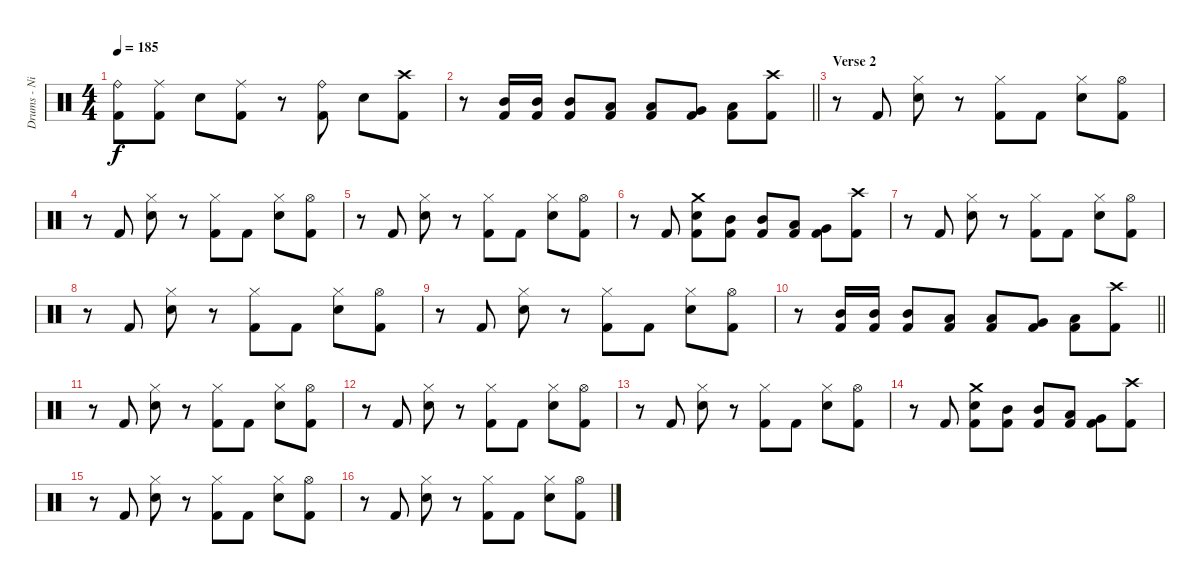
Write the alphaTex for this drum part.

\track ("Drums - Nicko" "Drums - Ni") {instrument percussion}
\staff {score}
\articulation defaults
\ts (4 4)
\tempo 185
\clef neutral
\ks c
("Ride (bell)" "Kick (hit) 2").8{dy f} ("Ride (middle)" "Kick (hit) 2").8 "Snare (hit) 2".8 ("Ride (middle)" "Kick (hit) 2").8 r.8 ("Ride (bell)" "Kick (hit) 2").8 "Snare (hit) 2".8 ("Crash high (hit)" "Kick (hit) 2").8 |
\barLineRight lightlight
r.8 ("Mid Tom (hit)" "Kick (hit) 2").16 ("Mid Tom (hit)" "Kick (hit) 2").16 ("Mid Tom (hit)" "Kick (hit) 2").8 ("Low Tom (hit)" "Kick (hit) 2").8 ("Low Tom (hit)" "Kick (hit) 2").8 ("Very Low Tom (hit)" "Kick (hit) 2").8 ("Low Floor Tom (hit)" "Kick (hit) 2").8 ("Crash high (hit)" "Kick (hit) 2").8 |
\section ("" "Verse 2")
r.8 "Kick (hit) 2".8 ("Hi-Hat (closed)" "Snare (hit) 2").8 r.8 ("Hi-Hat (closed)" "Kick (hit) 2").8 "Kick (hit) 2".8 ("Hi-Hat (closed)" "Snare (hit) 2").8 ("Hi-Hat (open)" "Kick (hit) 2").8 |
r.8 "Kick (hit) 2".8 ("Hi-Hat (closed)" "Snare (hit) 2").8 r.8 ("Hi-Hat (closed)" "Kick (hit) 2").8 "Kick (hit) 2".8 ("Hi-Hat (closed)" "Snare (hit) 2").8 ("Hi-Hat (open)" "Kick (hit) 2").8 |
r.8 "Kick (hit) 2".8 ("Hi-Hat (closed)" "Snare (hit) 2").8 r.8 ("Hi-Hat (closed)" "Kick (hit) 2").8 "Kick (hit) 2".8 ("Hi-Hat (closed)" "Snare (hit) 2").8 ("Hi-Hat (open)" "Kick (hit) 2").8 |
r.8 "Kick (hit) 2".8 ("Crash medium (hit)" "Snare (hit) 2" "Kick (hit) 2").8 ("Mid Tom (hit)" "Kick (hit) 2").8 ("Mid Tom (hit)" "Kick (hit) 2").8 ("Low Tom (hit)" "Kick (hit) 2").8 ("Very Low Tom (hit)" "Kick (hit) 2").8 ("Crash high (hit)" "Kick (hit) 2").8 |
r.8 "Kick (hit) 2".8 ("Hi-Hat (closed)" "Snare (hit) 2").8 r.8 ("Hi-Hat (closed)" "Kick (hit) 2").8 "Kick (hit) 2".8 ("Hi-Hat (closed)" "Snare (hit) 2").8 ("Hi-Hat (open)" "Kick (hit) 2").8 |
r.8 "Kick (hit) 2".8 ("Hi-Hat (closed)" "Snare (hit) 2").8 r.8 ("Hi-Hat (closed)" "Kick (hit) 2").8 "Kick (hit) 2".8 ("Hi-Hat (closed)" "Snare (hit) 2").8 ("Hi-Hat (open)" "Kick (hit) 2").8 |
r.8 "Kick (hit) 2".8 ("Hi-Hat (closed)" "Snare (hit) 2").8 r.8 ("Hi-Hat (closed)" "Kick (hit) 2").8 "Kick (hit) 2".8 ("Hi-Hat (closed)" "Snare (hit) 2").8 ("Hi-Hat (open)" "Kick (hit) 2").8 |
\barLineRight lightlight
r.8 ("Mid Tom (hit)" "Kick (hit) 2").16 ("Mid Tom (hit)" "Kick (hit) 2").16 ("Mid Tom (hit)" "Kick (hit) 2").8 ("Low Tom (hit)" "Kick (hit) 2").8 ("Low Tom (hit)" "Kick (hit) 2").8 ("Very Low Tom (hit)" "Kick (hit) 2").8 ("Low Floor Tom (hit)" "Kick (hit) 2").8 ("Crash high (hit)" "Kick (hit) 2").8 |
\section ("" "")
r.8 "Kick (hit) 2".8 ("Hi-Hat (closed)" "Snare (hit) 2").8 r.8 ("Hi-Hat (closed)" "Kick (hit) 2").8 "Kick (hit) 2".8 ("Hi-Hat (closed)" "Snare (hit) 2").8 ("Hi-Hat (open)" "Kick (hit) 2").8 |
r.8 "Kick (hit) 2".8 ("Hi-Hat (closed)" "Snare (hit) 2").8 r.8 ("Hi-Hat (closed)" "Kick (hit) 2").8 "Kick (hit) 2".8 ("Hi-Hat (closed)" "Snare (hit) 2").8 ("Hi-Hat (open)" "Kick (hit) 2").8 |
r.8 "Kick (hit) 2".8 ("Hi-Hat (closed)" "Snare (hit) 2").8 r.8 ("Hi-Hat (closed)" "Kick (hit) 2").8 "Kick (hit) 2".8 ("Hi-Hat (closed)" "Snare (hit) 2").8 ("Hi-Hat (open)" "Kick (hit) 2").8 |
r.8 "Kick (hit) 2".8 ("Crash medium (hit)" "Snare (hit) 2" "Kick (hit) 2").8 ("Mid Tom (hit)" "Kick (hit) 2").8 ("Mid Tom (hit)" "Kick (hit) 2").8 ("Low Tom (hit)" "Kick (hit) 2").8 ("Very Low Tom (hit)" "Kick (hit) 2").8 ("Crash high (hit)" "Kick (hit) 2").8 |
r.8 "Kick (hit) 2".8 ("Hi-Hat (closed)" "Snare (hit) 2").8 r.8 ("Hi-Hat (closed)" "Kick (hit) 2").8 "Kick (hit) 2".8 ("Hi-Hat (closed)" "Snare (hit) 2").8 ("Hi-Hat (open)" "Kick (hit) 2").8 |
r.8 "Kick (hit) 2".8 ("Hi-Hat (closed)" "Snare (hit) 2").8 r.8 ("Hi-Hat (closed)" "Kick (hit) 2").8 "Kick (hit) 2".8 ("Hi-Hat (closed)" "Snare (hit) 2").8 ("Hi-Hat (open)" "Kick (hit) 2").8
